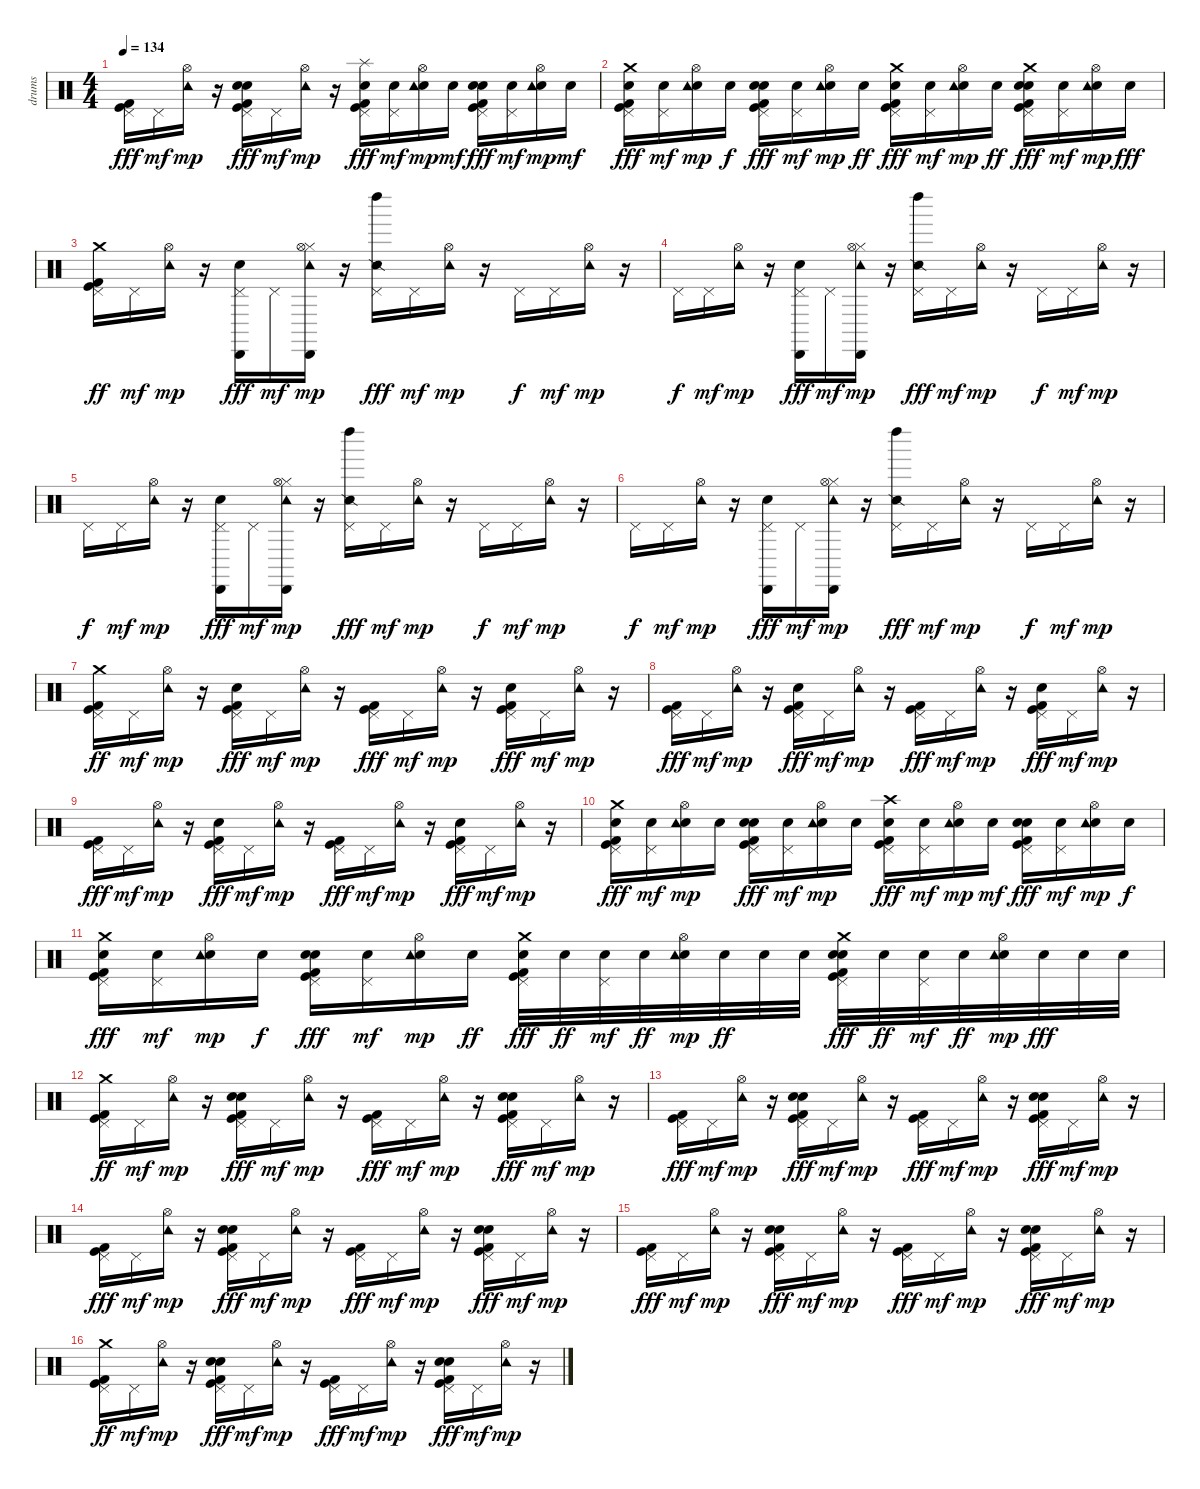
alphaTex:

\track ("drums" "drums") {instrument percussion}
\staff {score}
\articulation defaults
\ts (4 4)
\tempo 134
\clef neutral
\ks c
("Kick (hit)" "Kick (hit) 2" "Pedal Hi-Hat (hit)").16{dy fff} "Pedal Hi-Hat (hit)".16{dy mf} ("Hi-Hat (open)" "Tambourine (hit)").16{dy mp} r.16 ("Electric Snare (hit)" "Kick (hit)" "Kick (hit) 2" "Hand Clap (hit)" "Pedal Hi-Hat (hit)").16{dy fff} "Pedal Hi-Hat (hit)".16{dy mf} ("Hi-Hat (open)" "Tambourine (hit)").16{dy mp} r.16 ("Splash (hit)" "Electric Snare (hit)" "Kick (hit)" "Kick (hit) 2" "Pedal Hi-Hat (hit)").16{dy fff} ("Electric Snare (hit)" "Pedal Hi-Hat (hit)").16{dy mf} ("Electric Snare (hit)" "Hi-Hat (open)" "Tambourine (hit)").16{dy mp} "Electric Snare (hit)".16{dy mf} ("Electric Snare (hit)" "Kick (hit)" "Kick (hit) 2" "Hand Clap (hit)" "Pedal Hi-Hat (hit)").16{dy fff} ("Electric Snare (hit)" "Pedal Hi-Hat (hit)").16{dy mf} ("Electric Snare (hit)" "Hi-Hat (open)" "Tambourine (hit)").16{dy mp} "Electric Snare (hit)".16{dy mf} |
("Crash medium (hit)" "Electric Snare (hit)" "Kick (hit)" "Kick (hit) 2" "Pedal Hi-Hat (hit)").16{dy fff} ("Electric Snare (hit)" "Pedal Hi-Hat (hit)").16{dy mf} ("Electric Snare (hit)" "Hi-Hat (open)" "Tambourine (hit)").16{dy mp} "Electric Snare (hit)".16{dy f} ("Electric Snare (hit)" "Kick (hit)" "Kick (hit) 2" "Hand Clap (hit)" "Pedal Hi-Hat (hit)").16{dy fff} ("Electric Snare (hit)" "Pedal Hi-Hat (hit)").16{dy mf} ("Electric Snare (hit)" "Hi-Hat (open)" "Tambourine (hit)").16{dy mp} "Electric Snare (hit)".16{dy ff} ("Crash medium (hit)" "Electric Snare (hit)" "Kick (hit)" "Kick (hit) 2" "Pedal Hi-Hat (hit)").16{dy fff} ("Electric Snare (hit)" "Pedal Hi-Hat (hit)").16{dy mf} ("Electric Snare (hit)" "Hi-Hat (open)" "Tambourine (hit)").16{dy mp} "Electric Snare (hit)".16{dy ff} ("Crash medium (hit)" "Electric Snare (hit)" "Kick (hit)" "Kick (hit) 2" "Hand Clap (hit)" "Pedal Hi-Hat (hit)").16{dy fff} ("Electric Snare (hit)" "Pedal Hi-Hat (hit)").16{dy mf} ("Electric Snare (hit)" "Hi-Hat (open)" "Tambourine (hit)").16{dy mp} "Electric Snare (hit)".16{dy fff} |
("Kick (hit) 2" "Kick (hit)" "Pedal Hi-Hat (hit)" "Crash medium (hit)").16{dy ff} "Pedal Hi-Hat (hit)".16{dy mf} ("Hi-Hat (open)" "Tambourine (hit)").16{dy mp} r.16 ("Cabasa (hit)" "Snare (hit)" "Pedal Hi-Hat (hit)").16{dy fff} "Pedal Hi-Hat (hit)".16{dy mf} ("Cabasa (hit)" "Hi-Hat (closed)" "Hi-Hat (open)" "Tambourine (hit)").16{dy mp} r.16 ("Left Maraca (hit)" "Snare (side stick) 2" "Pedal Hi-Hat (hit)").16{dy fff} "Pedal Hi-Hat (hit)".16{dy mf} ("Hi-Hat (open)" "Tambourine (hit)").16{dy mp} r.16 "Pedal Hi-Hat (hit)".16{dy f} "Pedal Hi-Hat (hit)".16{dy mf} ("Hi-Hat (open)" "Tambourine (hit)").16{dy mp} r.16 |
"Pedal Hi-Hat (hit)".16{dy f} "Pedal Hi-Hat (hit)".16{dy mf} ("Hi-Hat (open)" "Tambourine (hit)").16{dy mp} r.16 ("Cabasa (hit)" "Snare (hit)" "Pedal Hi-Hat (hit)").16{dy fff} "Pedal Hi-Hat (hit)".16{dy mf} ("Cabasa (hit)" "Hi-Hat (closed)" "Hi-Hat (open)" "Tambourine (hit)").16{dy mp} r.16 ("Left Maraca (hit)" "Snare (side stick) 2" "Pedal Hi-Hat (hit)").16{dy fff} "Pedal Hi-Hat (hit)".16{dy mf} ("Hi-Hat (open)" "Tambourine (hit)").16{dy mp} r.16 "Pedal Hi-Hat (hit)".16{dy f} "Pedal Hi-Hat (hit)".16{dy mf} ("Hi-Hat (open)" "Tambourine (hit)").16{dy mp} r.16 |
"Pedal Hi-Hat (hit)".16{dy f} "Pedal Hi-Hat (hit)".16{dy mf} ("Hi-Hat (open)" "Tambourine (hit)").16{dy mp} r.16 ("Cabasa (hit)" "Snare (hit)" "Pedal Hi-Hat (hit)").16{dy fff} "Pedal Hi-Hat (hit)".16{dy mf} ("Cabasa (hit)" "Hi-Hat (closed)" "Hi-Hat (open)" "Tambourine (hit)").16{dy mp} r.16 ("Left Maraca (hit)" "Snare (side stick) 2" "Pedal Hi-Hat (hit)").16{dy fff} "Pedal Hi-Hat (hit)".16{dy mf} ("Hi-Hat (open)" "Tambourine (hit)").16{dy mp} r.16 "Pedal Hi-Hat (hit)".16{dy f} "Pedal Hi-Hat (hit)".16{dy mf} ("Hi-Hat (open)" "Tambourine (hit)").16{dy mp} r.16 |
"Pedal Hi-Hat (hit)".16{dy f} "Pedal Hi-Hat (hit)".16{dy mf} ("Hi-Hat (open)" "Tambourine (hit)").16{dy mp} r.16 ("Cabasa (hit)" "Snare (hit)" "Pedal Hi-Hat (hit)").16{dy fff} "Pedal Hi-Hat (hit)".16{dy mf} ("Cabasa (hit)" "Hi-Hat (closed)" "Hi-Hat (open)" "Tambourine (hit)").16{dy mp} r.16 ("Left Maraca (hit)" "Snare (side stick) 2" "Pedal Hi-Hat (hit)").16{dy fff} "Pedal Hi-Hat (hit)".16{dy mf} ("Hi-Hat (open)" "Tambourine (hit)").16{dy mp} r.16 "Pedal Hi-Hat (hit)".16{dy f} "Pedal Hi-Hat (hit)".16{dy mf} ("Hi-Hat (open)" "Tambourine (hit)").16{dy mp} r.16 |
("Kick (hit)" "Kick (hit) 2" "Pedal Hi-Hat (hit)" "Crash medium (hit)").16{dy ff} "Pedal Hi-Hat (hit)".16{dy mf} ("Hi-Hat (open)" "Tambourine (hit)").16{dy mp} r.16 ("Hand Clap (hit)" "Kick (hit)" "Kick (hit) 2" "Pedal Hi-Hat (hit)").16{dy fff} "Pedal Hi-Hat (hit)".16{dy mf} ("Hi-Hat (open)" "Tambourine (hit)").16{dy mp} r.16 ("Kick (hit)" "Kick (hit) 2" "Pedal Hi-Hat (hit)").16{dy fff} "Pedal Hi-Hat (hit)".16{dy mf} ("Hi-Hat (open)" "Tambourine (hit)").16{dy mp} r.16 ("Hand Clap (hit)" "Kick (hit)" "Kick (hit) 2" "Pedal Hi-Hat (hit)").16{dy fff} "Pedal Hi-Hat (hit)".16{dy mf} ("Hi-Hat (open)" "Tambourine (hit)").16{dy mp} r.16 |
("Kick (hit)" "Kick (hit) 2" "Pedal Hi-Hat (hit)").16{dy fff} "Pedal Hi-Hat (hit)".16{dy mf} ("Hi-Hat (open)" "Tambourine (hit)").16{dy mp} r.16 ("Hand Clap (hit)" "Kick (hit)" "Kick (hit) 2" "Pedal Hi-Hat (hit)").16{dy fff} "Pedal Hi-Hat (hit)".16{dy mf} ("Hi-Hat (open)" "Tambourine (hit)").16{dy mp} r.16 ("Kick (hit)" "Kick (hit) 2" "Pedal Hi-Hat (hit)").16{dy fff} "Pedal Hi-Hat (hit)".16{dy mf} ("Hi-Hat (open)" "Tambourine (hit)").16{dy mp} r.16 ("Hand Clap (hit)" "Kick (hit)" "Kick (hit) 2" "Pedal Hi-Hat (hit)").16{dy fff} "Pedal Hi-Hat (hit)".16{dy mf} ("Hi-Hat (open)" "Tambourine (hit)").16{dy mp} r.16 |
("Pedal Hi-Hat (hit)" "Kick (hit) 2" "Kick (hit)").16{dy fff} "Pedal Hi-Hat (hit)".16{dy mf} ("Tambourine (hit)" "Hi-Hat (open)").16{dy mp} r.16 ("Hand Clap (hit)" "Pedal Hi-Hat (hit)" "Kick (hit) 2" "Kick (hit)").16{dy fff} "Pedal Hi-Hat (hit)".16{dy mf} ("Tambourine (hit)" "Hi-Hat (open)").16{dy mp} r.16 ("Pedal Hi-Hat (hit)" "Kick (hit) 2" "Kick (hit)").16{dy fff} "Pedal Hi-Hat (hit)".16{dy mf} ("Tambourine (hit)" "Hi-Hat (open)").16{dy mp} r.16 ("Hand Clap (hit)" "Pedal Hi-Hat (hit)" "Kick (hit) 2" "Kick (hit)").16{dy fff} "Pedal Hi-Hat (hit)".16{dy mf} ("Tambourine (hit)" "Hi-Hat (open)").16{dy mp} r.16 |
("Crash medium (hit)" "Electric Snare (hit)" "Kick (hit)" "Kick (hit) 2" "Pedal Hi-Hat (hit)").16{dy fff} ("Electric Snare (hit)" "Pedal Hi-Hat (hit)").16{dy mf} ("Electric Snare (hit)" "Hi-Hat (open)" "Tambourine (hit)").16{dy mp} "Electric Snare (hit)".16 ("Electric Snare (hit)" "Kick (hit)" "Kick (hit) 2" "Hand Clap (hit)" "Pedal Hi-Hat (hit)").16{dy fff} ("Electric Snare (hit)" "Pedal Hi-Hat (hit)").16{dy mf} ("Electric Snare (hit)" "Hi-Hat (open)" "Tambourine (hit)").16{dy mp} "Electric Snare (hit)".16 ("Electric Snare (hit)" "Crash high (hit)" "Kick (hit)" "Kick (hit) 2" "Pedal Hi-Hat (hit)").16{dy fff} ("Electric Snare (hit)" "Pedal Hi-Hat (hit)").16{dy mf} ("Electric Snare (hit)" "Hi-Hat (open)" "Tambourine (hit)").16{dy mp} "Electric Snare (hit)".16{dy mf} ("Electric Snare (hit)" "Kick (hit)" "Kick (hit) 2" "Hand Clap (hit)" "Pedal Hi-Hat (hit)").16{dy fff} ("Electric Snare (hit)" "Pedal Hi-Hat (hit)").16{dy mf} ("Electric Snare (hit)" "Hi-Hat (open)" "Tambourine (hit)").16{dy mp} "Electric Snare (hit)".16{dy f} |
("Electric Snare (hit)" "Crash medium (hit)" "Kick (hit)" "Kick (hit) 2" "Pedal Hi-Hat (hit)").16{dy fff} ("Electric Snare (hit)" "Pedal Hi-Hat (hit)").16{dy mf} ("Electric Snare (hit)" "Hi-Hat (open)" "Tambourine (hit)").16{dy mp} "Electric Snare (hit)".16{dy f} ("Electric Snare (hit)" "Kick (hit)" "Kick (hit) 2" "Hand Clap (hit)" "Pedal Hi-Hat (hit)").16{dy fff} ("Electric Snare (hit)" "Pedal Hi-Hat (hit)").16{dy mf} ("Electric Snare (hit)" "Hi-Hat (open)" "Tambourine (hit)").16{dy mp} "Electric Snare (hit)".16{dy ff} ("Electric Snare (hit)" "Crash medium (hit)" "Kick (hit)" "Kick (hit) 2" "Pedal Hi-Hat (hit)").32{dy fff} "Electric Snare (hit)".32{dy ff} ("Electric Snare (hit)" "Pedal Hi-Hat (hit)").32{dy mf} "Electric Snare (hit)".32{dy ff} ("Electric Snare (hit)" "Hi-Hat (open)" "Tambourine (hit)").32{dy mp} "Electric Snare (hit)".32{dy ff} "Electric Snare (hit)".32 "Electric Snare (hit)".32 ("Electric Snare (hit)" "Crash medium (hit)" "Kick (hit)" "Kick (hit) 2" "Hand Clap (hit)" "Pedal Hi-Hat (hit)").32{dy fff} "Electric Snare (hit)".32{dy ff} ("Electric Snare (hit)" "Pedal Hi-Hat (hit)").32{dy mf} "Electric Snare (hit)".32{dy ff} ("Electric Snare (hit)" "Hi-Hat (open)" "Tambourine (hit)").32{dy mp} "Electric Snare (hit)".32{dy fff} "Electric Snare (hit)".32 "Electric Snare (hit)".32 |
("Kick (hit)" "Kick (hit) 2" "Pedal Hi-Hat (hit)" "Crash medium (hit)").16{dy ff} "Pedal Hi-Hat (hit)".16{dy mf} ("Hi-Hat (open)" "Tambourine (hit)").16{dy mp} r.16 ("Electric Snare (hit)" "Kick (hit)" "Kick (hit) 2" "Hand Clap (hit)" "Pedal Hi-Hat (hit)").16{dy fff} "Pedal Hi-Hat (hit)".16{dy mf} ("Hi-Hat (open)" "Tambourine (hit)").16{dy mp} r.16 ("Kick (hit)" "Kick (hit) 2" "Pedal Hi-Hat (hit)").16{dy fff} "Pedal Hi-Hat (hit)".16{dy mf} ("Hi-Hat (open)" "Tambourine (hit)").16{dy mp} r.16 ("Electric Snare (hit)" "Kick (hit)" "Kick (hit) 2" "Hand Clap (hit)" "Pedal Hi-Hat (hit)").16{dy fff} "Pedal Hi-Hat (hit)".16{dy mf} ("Hi-Hat (open)" "Tambourine (hit)").16{dy mp} r.16 |
("Kick (hit)" "Kick (hit) 2" "Pedal Hi-Hat (hit)").16{dy fff} "Pedal Hi-Hat (hit)".16{dy mf} ("Hi-Hat (open)" "Tambourine (hit)").16{dy mp} r.16 ("Electric Snare (hit)" "Kick (hit)" "Kick (hit) 2" "Hand Clap (hit)" "Pedal Hi-Hat (hit)").16{dy fff} "Pedal Hi-Hat (hit)".16{dy mf} ("Hi-Hat (open)" "Tambourine (hit)").16{dy mp} r.16 ("Kick (hit)" "Kick (hit) 2" "Pedal Hi-Hat (hit)").16{dy fff} "Pedal Hi-Hat (hit)".16{dy mf} ("Hi-Hat (open)" "Tambourine (hit)").16{dy mp} r.16 ("Electric Snare (hit)" "Kick (hit)" "Kick (hit) 2" "Hand Clap (hit)" "Pedal Hi-Hat (hit)").16{dy fff} "Pedal Hi-Hat (hit)".16{dy mf} ("Hi-Hat (open)" "Tambourine (hit)").16{dy mp} r.16 |
("Kick (hit)" "Kick (hit) 2" "Pedal Hi-Hat (hit)").16{dy fff} "Pedal Hi-Hat (hit)".16{dy mf} ("Hi-Hat (open)" "Tambourine (hit)").16{dy mp} r.16 ("Electric Snare (hit)" "Kick (hit)" "Kick (hit) 2" "Hand Clap (hit)" "Pedal Hi-Hat (hit)").16{dy fff} "Pedal Hi-Hat (hit)".16{dy mf} ("Hi-Hat (open)" "Tambourine (hit)").16{dy mp} r.16 ("Kick (hit)" "Kick (hit) 2" "Pedal Hi-Hat (hit)").16{dy fff} "Pedal Hi-Hat (hit)".16{dy mf} ("Hi-Hat (open)" "Tambourine (hit)").16{dy mp} r.16 ("Electric Snare (hit)" "Kick (hit)" "Kick (hit) 2" "Hand Clap (hit)" "Pedal Hi-Hat (hit)").16{dy fff} "Pedal Hi-Hat (hit)".16{dy mf} ("Hi-Hat (open)" "Tambourine (hit)").16{dy mp} r.16 |
("Kick (hit)" "Kick (hit) 2" "Pedal Hi-Hat (hit)").16{dy fff} "Pedal Hi-Hat (hit)".16{dy mf} ("Hi-Hat (open)" "Tambourine (hit)").16{dy mp} r.16 ("Electric Snare (hit)" "Kick (hit)" "Kick (hit) 2" "Hand Clap (hit)" "Pedal Hi-Hat (hit)").16{dy fff} "Pedal Hi-Hat (hit)".16{dy mf} ("Hi-Hat (open)" "Tambourine (hit)").16{dy mp} r.16 ("Kick (hit)" "Kick (hit) 2" "Pedal Hi-Hat (hit)").16{dy fff} "Pedal Hi-Hat (hit)".16{dy mf} ("Hi-Hat (open)" "Tambourine (hit)").16{dy mp} r.16 ("Electric Snare (hit)" "Kick (hit)" "Kick (hit) 2" "Hand Clap (hit)" "Pedal Hi-Hat (hit)").16{dy fff} "Pedal Hi-Hat (hit)".16{dy mf} ("Hi-Hat (open)" "Tambourine (hit)").16{dy mp} r.16 |
("Kick (hit)" "Kick (hit) 2" "Pedal Hi-Hat (hit)" "Crash medium (hit)").16{dy ff} "Pedal Hi-Hat (hit)".16{dy mf} ("Hi-Hat (open)" "Tambourine (hit)").16{dy mp} r.16 ("Electric Snare (hit)" "Kick (hit)" "Kick (hit) 2" "Hand Clap (hit)" "Pedal Hi-Hat (hit)").16{dy fff} "Pedal Hi-Hat (hit)".16{dy mf} ("Hi-Hat (open)" "Tambourine (hit)").16{dy mp} r.16 ("Kick (hit)" "Kick (hit) 2" "Pedal Hi-Hat (hit)").16{dy fff} "Pedal Hi-Hat (hit)".16{dy mf} ("Hi-Hat (open)" "Tambourine (hit)").16{dy mp} r.16 ("Electric Snare (hit)" "Kick (hit)" "Kick (hit) 2" "Hand Clap (hit)" "Pedal Hi-Hat (hit)").16{dy fff} "Pedal Hi-Hat (hit)".16{dy mf} ("Hi-Hat (open)" "Tambourine (hit)").16{dy mp} r.16
